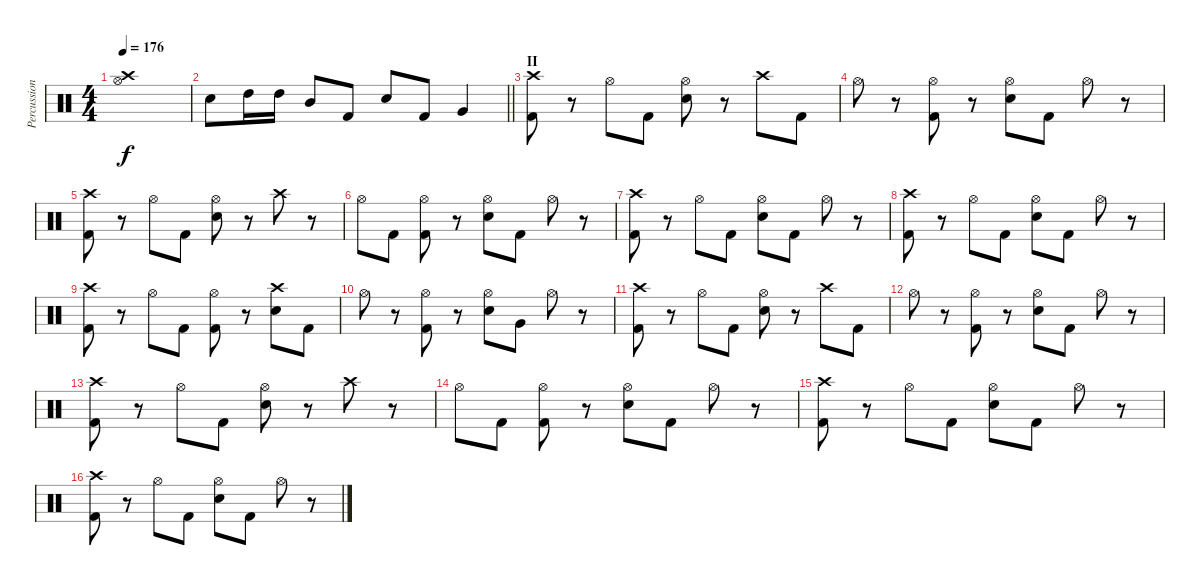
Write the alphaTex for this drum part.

\track ("Percussion" "Percussion") {instrument percussion}
\staff {score}
\articulation defaults
\ts (4 4)
\tempo 176
\clef neutral
\ks c
("Crash high (hit)" "Hi-Hat (open)").1{dy f} |
\barLineRight lightlight "Electric Snare (hit)".8 "High Tom (hit)".16 "High Tom (hit)".16 "Mid Tom (hit)".8 "Kick (hit) 2".8 "Electric Snare (hit)".8 "Kick (hit) 2".8 "Very Low Tom (hit)".4
|
\section ("" "II")
("Crash high (hit)" "Kick (hit) 2").8 r.8 "Hi-Hat (open)".8 "Kick (hit) 2".8 ("Hi-Hat (open)" "Electric Snare (hit)").8 r.8 "Crash high (hit)".8 "Kick (hit) 2".8 |
"Hi-Hat (open)".8 r.8 ("Hi-Hat (open)" "Kick (hit) 2").8 r.8 ("Hi-Hat (open)" "Electric Snare (hit)").8 "Kick (hit) 2".8 "Hi-Hat (open)".8 r.8 |
("Crash high (hit)" "Kick (hit) 2").8 r.8 "Hi-Hat (open)".8 "Kick (hit) 2".8 ("Hi-Hat (open)" "Electric Snare (hit)").8 r.8 "Crash high (hit)".8 r.8 |
"Hi-Hat (open)".8 "Kick (hit) 2".8 ("Hi-Hat (open)" "Kick (hit) 2").8 r.8 ("Hi-Hat (open)" "Electric Snare (hit)").8 "Kick (hit) 2".8 "Hi-Hat (open)".8 r.8 |
("Crash high (hit)" "Kick (hit) 2").8 r.8 "Hi-Hat (open)".8 "Kick (hit) 2".8 ("Hi-Hat (open)" "Electric Snare (hit)").8 "Kick (hit) 2".8 "Hi-Hat (open)".8 r.8 |
("Crash high (hit)" "Kick (hit) 2").8 r.8 "Hi-Hat (open)".8 "Kick (hit) 2".8 ("Hi-Hat (open)" "Electric Snare (hit)").8 "Kick (hit) 2".8 "Hi-Hat (open)".8 r.8 |
("Crash high (hit)" "Kick (hit) 2").8 r.8 "Hi-Hat (open)".8 "Kick (hit) 2".8 ("Hi-Hat (open)" "Kick (hit) 2").8 r.8 ("Crash high (hit)" "Electric Snare (hit)").8 "Kick (hit) 2".8 |
"Hi-Hat (open)".8 r.8 ("Hi-Hat (open)" "Kick (hit) 2").8 r.8 ("Hi-Hat (open)" "Electric Snare (hit)").8 "Very Low Tom (hit)".8 "Hi-Hat (open)".8 r.8 |
("Crash high (hit)" "Kick (hit) 2").8 r.8 "Hi-Hat (open)".8 "Kick (hit) 2".8 ("Hi-Hat (open)" "Electric Snare (hit)").8 r.8 "Crash high (hit)".8 "Kick (hit) 2".8 |
"Hi-Hat (open)".8 r.8 ("Hi-Hat (open)" "Kick (hit) 2").8 r.8 ("Hi-Hat (open)" "Electric Snare (hit)").8 "Kick (hit) 2".8 "Hi-Hat (open)".8 r.8 |
("Crash high (hit)" "Kick (hit) 2").8 r.8 "Hi-Hat (open)".8 "Kick (hit) 2".8 ("Hi-Hat (open)" "Electric Snare (hit)").8 r.8 "Crash high (hit)".8 r.8 |
"Hi-Hat (open)".8 "Kick (hit) 2".8 ("Hi-Hat (open)" "Kick (hit) 2").8 r.8 ("Hi-Hat (open)" "Electric Snare (hit)").8 "Kick (hit) 2".8 "Hi-Hat (open)".8 r.8 |
("Crash high (hit)" "Kick (hit) 2").8 r.8 "Hi-Hat (open)".8 "Kick (hit) 2".8 ("Hi-Hat (open)" "Electric Snare (hit)").8 "Kick (hit) 2".8 "Hi-Hat (open)".8 r.8 |
("Crash high (hit)" "Kick (hit) 2").8 r.8 "Hi-Hat (open)".8 "Kick (hit) 2".8 ("Hi-Hat (open)" "Electric Snare (hit)").8 "Kick (hit) 2".8 "Hi-Hat (open)".8 r.8
